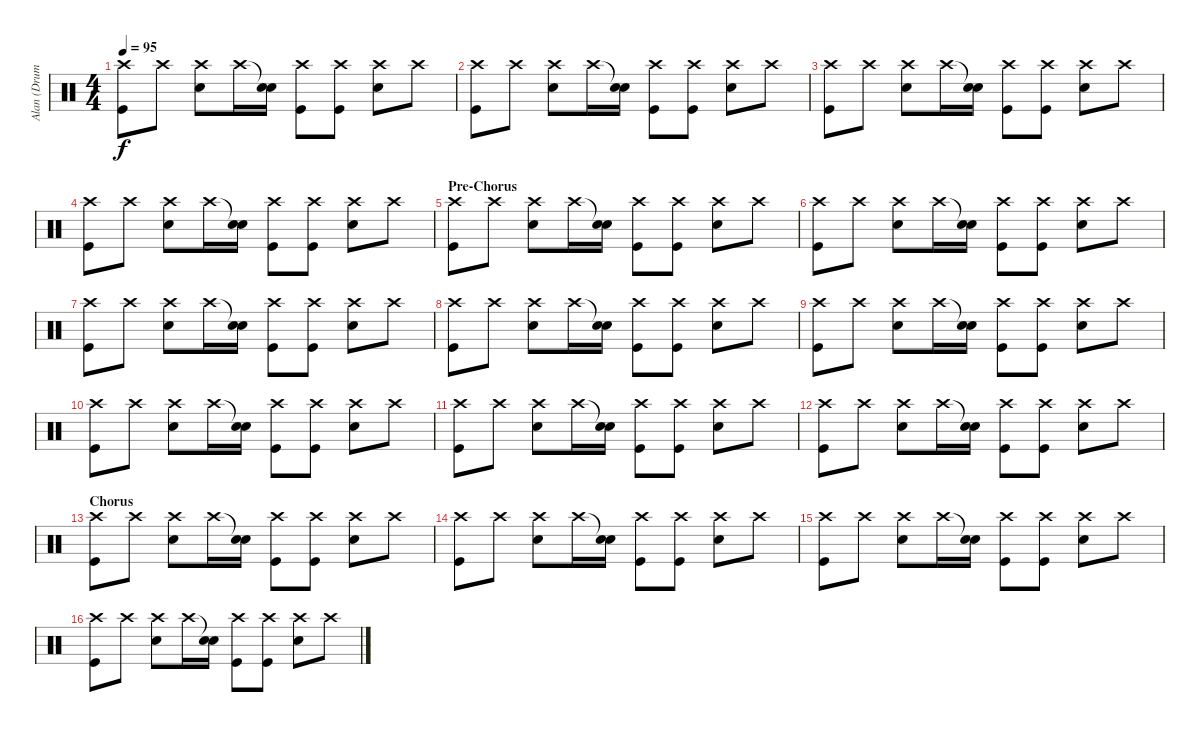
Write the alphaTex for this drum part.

\track ("Alan (Drums)" "Alan (Drum") {instrument percussion}
\staff {score}
\articulation defaults
\ts (4 4)
\tempo 95
\clef neutral
\ks c
("Crash high (hit)" "Kick (hit)").8{dy f} "Crash high (hit)".8 ("Crash high (hit)" "Electric Snare (hit)").8 "Crash high (hit)".16 ("Snare (hit)"{t} "Electric Snare (hit)").16 ("Crash high (hit)" "Kick (hit)").8 ("Crash high (hit)" "Kick (hit)").8 ("Crash high (hit)" "Electric Snare (hit)").8 "Crash high (hit)".8 |
("Crash high (hit)" "Kick (hit)").8 "Crash high (hit)".8 ("Crash high (hit)" "Electric Snare (hit)").8 "Crash high (hit)".16 ("Snare (hit)"{t} "Electric Snare (hit)").16 ("Crash high (hit)" "Kick (hit)").8 ("Crash high (hit)" "Kick (hit)").8 ("Crash high (hit)" "Electric Snare (hit)").8 "Crash high (hit)".8 |
("Crash high (hit)" "Kick (hit)").8 "Crash high (hit)".8 ("Crash high (hit)" "Electric Snare (hit)").8 "Crash high (hit)".16 ("Snare (hit)"{t} "Electric Snare (hit)").16 ("Crash high (hit)" "Kick (hit)").8 ("Crash high (hit)" "Kick (hit)").8 ("Crash high (hit)" "Electric Snare (hit)").8 "Crash high (hit)".8 |
("Crash high (hit)" "Kick (hit)").8 "Crash high (hit)".8 ("Crash high (hit)" "Electric Snare (hit)").8 "Crash high (hit)".16 ("Snare (hit)"{t} "Electric Snare (hit)").16 ("Crash high (hit)" "Kick (hit)").8 ("Crash high (hit)" "Kick (hit)").8 ("Crash high (hit)" "Electric Snare (hit)").8 "Crash high (hit)".8 |
\section ("" "Pre-Chorus")
("Crash high (hit)" "Kick (hit)").8 "Crash high (hit)".8 ("Crash high (hit)" "Electric Snare (hit)").8 "Crash high (hit)".16 ("Snare (hit)"{t} "Electric Snare (hit)").16 ("Crash high (hit)" "Kick (hit)").8 ("Crash high (hit)" "Kick (hit)").8 ("Crash high (hit)" "Electric Snare (hit)").8 "Crash high (hit)".8 |
("Crash high (hit)" "Kick (hit)").8 "Crash high (hit)".8 ("Crash high (hit)" "Electric Snare (hit)").8 "Crash high (hit)".16 ("Snare (hit)"{t} "Electric Snare (hit)").16 ("Crash high (hit)" "Kick (hit)").8 ("Crash high (hit)" "Kick (hit)").8 ("Crash high (hit)" "Electric Snare (hit)").8 "Crash high (hit)".8 |
("Crash high (hit)" "Kick (hit)").8 "Crash high (hit)".8 ("Crash high (hit)" "Electric Snare (hit)").8 "Crash high (hit)".16 ("Snare (hit)"{t} "Electric Snare (hit)").16 ("Crash high (hit)" "Kick (hit)").8 ("Crash high (hit)" "Kick (hit)").8 ("Crash high (hit)" "Electric Snare (hit)").8 "Crash high (hit)".8 |
("Crash high (hit)" "Kick (hit)").8 "Crash high (hit)".8 ("Crash high (hit)" "Electric Snare (hit)").8 "Crash high (hit)".16 ("Snare (hit)"{t} "Electric Snare (hit)").16 ("Crash high (hit)" "Kick (hit)").8 ("Crash high (hit)" "Kick (hit)").8 ("Crash high (hit)" "Electric Snare (hit)").8 "Crash high (hit)".8 |
("Crash high (hit)" "Kick (hit)").8 "Crash high (hit)".8 ("Crash high (hit)" "Electric Snare (hit)").8 "Crash high (hit)".16 ("Snare (hit)"{t} "Electric Snare (hit)").16 ("Crash high (hit)" "Kick (hit)").8 ("Crash high (hit)" "Kick (hit)").8 ("Crash high (hit)" "Electric Snare (hit)").8 "Crash high (hit)".8 |
("Crash high (hit)" "Kick (hit)").8 "Crash high (hit)".8 ("Crash high (hit)" "Electric Snare (hit)").8 "Crash high (hit)".16 ("Snare (hit)"{t} "Electric Snare (hit)").16 ("Crash high (hit)" "Kick (hit)").8 ("Crash high (hit)" "Kick (hit)").8 ("Crash high (hit)" "Electric Snare (hit)").8 "Crash high (hit)".8 |
("Crash high (hit)" "Kick (hit)").8 "Crash high (hit)".8 ("Crash high (hit)" "Electric Snare (hit)").8 "Crash high (hit)".16 ("Snare (hit)"{t} "Electric Snare (hit)").16 ("Crash high (hit)" "Kick (hit)").8 ("Crash high (hit)" "Kick (hit)").8 ("Crash high (hit)" "Electric Snare (hit)").8 "Crash high (hit)".8 |
("Crash high (hit)" "Kick (hit)").8 "Crash high (hit)".8 ("Crash high (hit)" "Electric Snare (hit)").8 "Crash high (hit)".16 ("Snare (hit)"{t} "Electric Snare (hit)").16 ("Crash high (hit)" "Kick (hit)").8 ("Crash high (hit)" "Kick (hit)").8 ("Crash high (hit)" "Electric Snare (hit)").8 "Crash high (hit)".8 |
\section ("" "Chorus")
("Crash high (hit)" "Kick (hit)").8 "Crash high (hit)".8 ("Crash high (hit)" "Electric Snare (hit)").8 "Crash high (hit)".16 ("Snare (hit)"{t} "Electric Snare (hit)").16 ("Crash high (hit)" "Kick (hit)").8 ("Crash high (hit)" "Kick (hit)").8 ("Crash high (hit)" "Electric Snare (hit)").8 "Crash high (hit)".8 |
("Crash high (hit)" "Kick (hit)").8 "Crash high (hit)".8 ("Crash high (hit)" "Electric Snare (hit)").8 "Crash high (hit)".16 ("Snare (hit)"{t} "Electric Snare (hit)").16 ("Crash high (hit)" "Kick (hit)").8 ("Crash high (hit)" "Kick (hit)").8 ("Crash high (hit)" "Electric Snare (hit)").8 "Crash high (hit)".8 |
("Crash high (hit)" "Kick (hit)").8 "Crash high (hit)".8 ("Crash high (hit)" "Electric Snare (hit)").8 "Crash high (hit)".16 ("Snare (hit)"{t} "Electric Snare (hit)").16 ("Crash high (hit)" "Kick (hit)").8 ("Crash high (hit)" "Kick (hit)").8 ("Crash high (hit)" "Electric Snare (hit)").8 "Crash high (hit)".8 |
("Crash high (hit)" "Kick (hit)").8 "Crash high (hit)".8 ("Crash high (hit)" "Electric Snare (hit)").8 "Crash high (hit)".16 ("Snare (hit)"{t} "Electric Snare (hit)").16 ("Crash high (hit)" "Kick (hit)").8 ("Crash high (hit)" "Kick (hit)").8 ("Crash high (hit)" "Electric Snare (hit)").8 "Crash high (hit)".8
